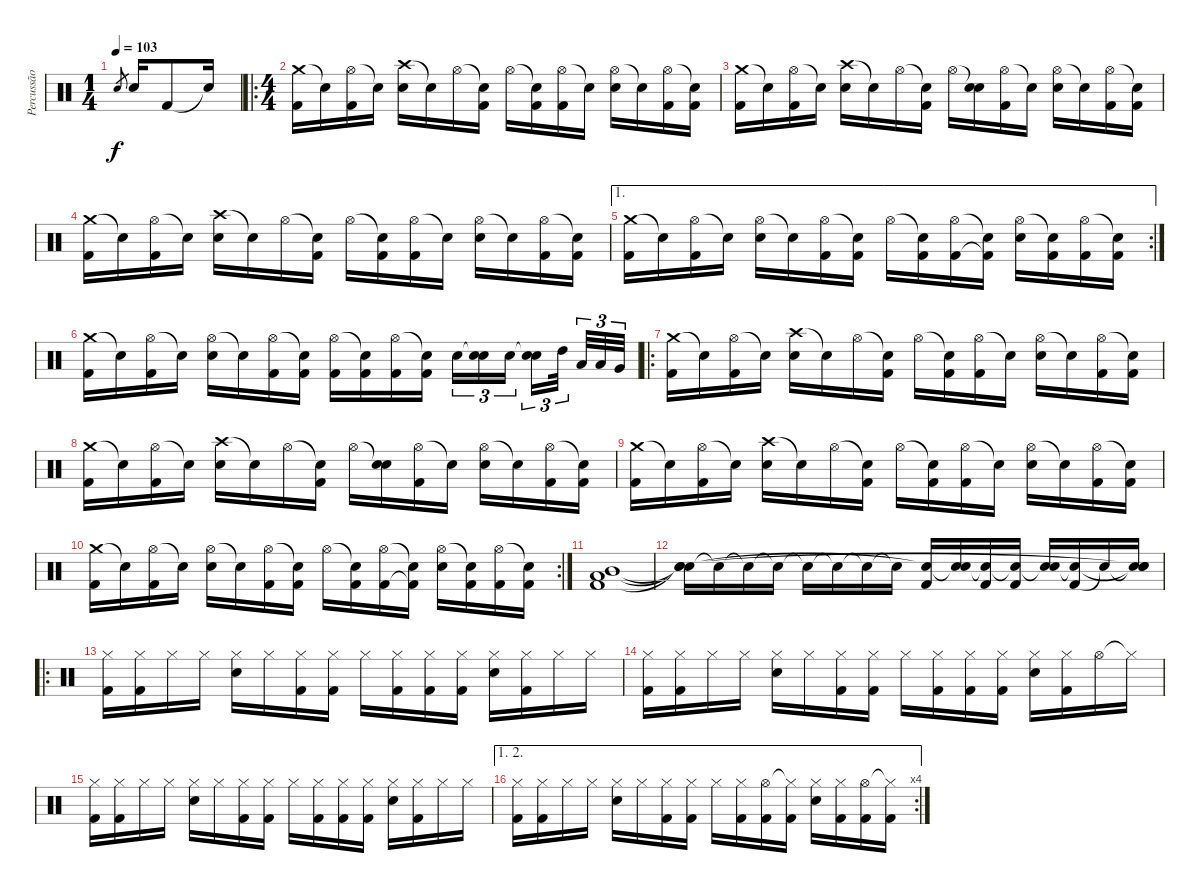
\track ("Percussão" "Percussão") {instrument percussion}
\staff {score}
\articulation defaults
\ts (1 4)
\tempo 103
\clef neutral
\ks c "Electric Snare (hit)".8{gr dy f} "Electric Snare (hit)".16 "Kick (hit) 2".8 "Snare (hit)"{t}.16
|
\ro
\ts (4 4)
("Crash medium (hit)" "Kick (hit) 2").16 "Snare (hit)"{t}.16 ("Hi-Hat (open)" "Kick (hit) 2").16 "Snare (hit)"{t}.16 ("Crash high (hit)" "Electric Snare (hit)").16 "Snare (hit)"{t}.16 "Hi-Hat (open)".16 ("Snare (hit)"{t} "Kick (hit) 2").16 "Hi-Hat (open)".16 ("Snare (hit)"{t} "Kick (hit) 2").16 ("Hi-Hat (open)" "Kick (hit) 2").16 "Snare (hit)"{t}.16 ("Hi-Hat (open)" "Electric Snare (hit)").16 "Snare (hit)"{t}.16 ("Hi-Hat (open)" "Kick (hit) 2").16 ("Snare (hit)"{t} "Kick (hit) 2").16 |
("Crash medium (hit)" "Kick (hit) 2").16 "Snare (hit)"{t}.16 ("Hi-Hat (open)" "Kick (hit) 2").16 "Snare (hit)"{t}.16 ("Crash high (hit)" "Electric Snare (hit)").16 "Snare (hit)"{t}.16 "Hi-Hat (open)".16 ("Snare (hit)"{t} "Kick (hit) 2").16 "Hi-Hat (open)".16 ("Snare (hit)"{t} "Electric Snare (hit)").16 ("Hi-Hat (open)" "Kick (hit) 2").16 "Snare (hit)"{t}.16 ("Hi-Hat (open)" "Electric Snare (hit)").16 "Snare (hit)"{t}.16 ("Hi-Hat (open)" "Kick (hit) 2").16 ("Snare (hit)"{t} "Kick (hit) 2").16 |
("Crash medium (hit)" "Kick (hit) 2").16 "Snare (hit)"{t}.16 ("Hi-Hat (open)" "Kick (hit) 2").16 "Snare (hit)"{t}.16 ("Crash high (hit)" "Electric Snare (hit)").16 "Snare (hit)"{t}.16 "Hi-Hat (open)".16 ("Snare (hit)"{t} "Kick (hit) 2").16 "Hi-Hat (open)".16 ("Snare (hit)"{t} "Kick (hit) 2").16 ("Hi-Hat (open)" "Kick (hit) 2").16 "Snare (hit)"{t}.16 ("Hi-Hat (open)" "Electric Snare (hit)").16 "Snare (hit)"{t}.16 ("Hi-Hat (open)" "Kick (hit) 2").16 ("Snare (hit)"{t} "Kick (hit) 2").16 |
\ae 1
\rc 2
("Crash medium (hit)" "Kick (hit) 2").16 "Snare (hit)"{t}.16 ("Hi-Hat (open)" "Kick (hit) 2").16 "Snare (hit)"{t}.16 ("Hi-Hat (open)" "Electric Snare (hit)").16 "Snare (hit)"{t}.16 ("Hi-Hat (open)" "Kick (hit) 2").16 ("Snare (hit)"{t} "Kick (hit) 2").16 "Hi-Hat (open)".16 ("Snare (hit)"{t} "Kick (hit) 2").16 ("Hi-Hat (open)" "Kick (hit) 2").16 ("Snare (hit)"{t} "Kick (hit) 2"{t}).16 ("Hi-Hat (open)" "Electric Snare (hit)").16 ("Snare (hit)"{t} "Kick (hit) 2").16 ("Hi-Hat (open)" "Kick (hit) 2").16 ("Snare (hit)"{t} "Kick (hit) 2").16 |
("Crash medium (hit)" "Kick (hit) 2").16 "Snare (hit)"{t}.16 ("Hi-Hat (open)" "Kick (hit) 2").16 "Snare (hit)"{t}.16 ("Hi-Hat (open)" "Electric Snare (hit)").16 "Snare (hit)"{t}.16 ("Hi-Hat (open)" "Kick (hit) 2").16 ("Snare (hit)"{t} "Kick (hit) 2").16 ("Hi-Hat (open)" "Kick (hit) 2").16 ("Snare (hit)"{t} "Kick (hit) 2").16 ("Hi-Hat (open)" "Kick (hit) 2").16 ("Snare (hit)"{t} "Kick (hit) 2").16 "Electric Snare (hit)".16{tu (3 2)} ("Snare (hit)"{t} "Electric Snare (hit)").16{tu (3 2)} "Electric Snare (hit)".16{tu (3 2)} ("Snare (hit)"{t} "Electric Snare (hit)").16{tu (3 2)} "High Tom (hit)".32{tu (3 2)} "Low Tom (hit)".32{tu (3 2)} "Low Tom (hit)".32{tu (3 2)} "Very Low Tom (hit)".32{tu (3 2)} |
\ro
("Crash medium (hit)" "Kick (hit) 2").16 "Snare (hit)"{t}.16 ("Hi-Hat (open)" "Kick (hit) 2").16 "Snare (hit)"{t}.16 ("Crash high (hit)" "Electric Snare (hit)").16 "Snare (hit)"{t}.16 "Hi-Hat (open)".16 ("Snare (hit)"{t} "Kick (hit) 2").16 "Hi-Hat (open)".16 ("Snare (hit)"{t} "Kick (hit) 2").16 ("Hi-Hat (open)" "Kick (hit) 2").16 "Snare (hit)"{t}.16 ("Hi-Hat (open)" "Electric Snare (hit)").16 "Snare (hit)"{t}.16 ("Hi-Hat (open)" "Kick (hit) 2").16 ("Snare (hit)"{t} "Kick (hit) 2").16 |
("Crash medium (hit)" "Kick (hit) 2").16 "Snare (hit)"{t}.16 ("Hi-Hat (open)" "Kick (hit) 2").16 "Snare (hit)"{t}.16 ("Crash high (hit)" "Electric Snare (hit)").16 "Snare (hit)"{t}.16 "Hi-Hat (open)".16 ("Snare (hit)"{t} "Kick (hit) 2").16 "Hi-Hat (open)".16 ("Snare (hit)"{t} "Electric Snare (hit)").16 ("Hi-Hat (open)" "Kick (hit) 2").16 "Snare (hit)"{t}.16 ("Hi-Hat (open)" "Electric Snare (hit)").16 "Snare (hit)"{t}.16 ("Hi-Hat (open)" "Kick (hit) 2").16 ("Snare (hit)"{t} "Kick (hit) 2").16 |
("Crash medium (hit)" "Kick (hit) 2").16 "Snare (hit)"{t}.16 ("Hi-Hat (open)" "Kick (hit) 2").16 "Snare (hit)"{t}.16 ("Crash high (hit)" "Electric Snare (hit)").16 "Snare (hit)"{t}.16 "Hi-Hat (open)".16 ("Snare (hit)"{t} "Kick (hit) 2").16 "Hi-Hat (open)".16 ("Snare (hit)"{t} "Kick (hit) 2").16 ("Hi-Hat (open)" "Kick (hit) 2").16 "Snare (hit)"{t}.16 ("Hi-Hat (open)" "Electric Snare (hit)").16 "Snare (hit)"{t}.16 ("Hi-Hat (open)" "Kick (hit) 2").16 ("Snare (hit)"{t} "Kick (hit) 2").16 |
\rc 2
("Crash medium (hit)" "Kick (hit) 2").16 "Snare (hit)"{t}.16 ("Hi-Hat (open)" "Kick (hit) 2").16 "Snare (hit)"{t}.16 ("Hi-Hat (open)" "Electric Snare (hit)").16 "Snare (hit)"{t}.16 ("Hi-Hat (open)" "Kick (hit) 2").16 ("Snare (hit)"{t} "Kick (hit) 2").16 "Hi-Hat (open)".16 ("Snare (hit)"{t} "Kick (hit) 2").16 ("Hi-Hat (open)" "Kick (hit) 2").16 ("Snare (hit)"{t} "Kick (hit) 2"{t}).16 ("Hi-Hat (open)" "Electric Snare (hit)").16 ("Snare (hit)"{t} "Kick (hit) 2").16 ("Hi-Hat (open)" "Kick (hit) 2").16 ("Snare (hit)"{t} "Kick (hit) 2").16 |
("Kick (hit) 2" "Low Tom (hit)" "Mid Tom (hit)").1 |
("Snare (hit)"{t} "Snare (hit)"{t} "Snare (hit)"{t}).16 "Snare (hit)"{t}.16 "Snare (hit)"{t}.16 "Snare (hit)"{t}.16 "Snare (hit)"{t}.16 "Snare (hit)"{t}.16 "Snare (hit)"{t}.16 "Snare (hit)"{t}.16 ("Kick (hit) 2" "Snare (hit)"{t}).16 ("Electric Snare (hit)" "Snare (hit)"{t}).16 ("Kick (hit) 2" "Snare (hit)"{t}).16 ("Kick (hit) 2" "Snare (hit)"{t}).16 ("Electric Snare (hit)" "Snare (hit)"{t}).16 ("Kick (hit) 2" "Snare (hit)"{t}).16 "Snare (hit)"{t}.16 ("Snare (hit)"{t} "Snare (hit)"{t} "Snare (hit)"{t}).16 |
\ro
("Hi-Hat (closed)" "Kick (hit) 2").16 ("Hi-Hat (closed)" "Kick (hit) 2").16 "Hi-Hat (closed)".16 "Hi-Hat (closed)".16 ("Hi-Hat (closed)" "Electric Snare (hit)").16 "Hi-Hat (closed)".16 ("Hi-Hat (closed)" "Kick (hit) 2").16 ("Hi-Hat (closed)" "Kick (hit) 2").16 "Hi-Hat (closed)".16 ("Hi-Hat (closed)" "Kick (hit) 2").16 ("Hi-Hat (closed)" "Kick (hit) 2").16 ("Hi-Hat (closed)" "Kick (hit) 2").16 ("Hi-Hat (closed)" "Electric Snare (hit)").16 ("Hi-Hat (closed)" "Kick (hit) 2").16 "Hi-Hat (closed)".16 "Hi-Hat (closed)".16 |
("Hi-Hat (closed)" "Kick (hit) 2").16 ("Hi-Hat (closed)" "Kick (hit) 2").16 "Hi-Hat (closed)".16 "Hi-Hat (closed)".16 ("Hi-Hat (closed)" "Electric Snare (hit)").16 "Hi-Hat (closed)".16 ("Hi-Hat (closed)" "Kick (hit) 2").16 ("Hi-Hat (closed)" "Kick (hit) 2").16 "Hi-Hat (closed)".16 ("Hi-Hat (closed)" "Kick (hit) 2").16 ("Hi-Hat (closed)" "Kick (hit) 2").16 ("Hi-Hat (closed)" "Kick (hit) 2").16 ("Hi-Hat (closed)" "Electric Snare (hit)").16 ("Hi-Hat (closed)" "Kick (hit) 2").16 "Hi-Hat (open)".16 "Hi-Hat (closed)"{t}.16 |
("Hi-Hat (closed)" "Kick (hit) 2").16 ("Hi-Hat (closed)" "Kick (hit) 2").16 "Hi-Hat (closed)".16 "Hi-Hat (closed)".16 ("Hi-Hat (closed)" "Electric Snare (hit)").16 "Hi-Hat (closed)".16 ("Hi-Hat (closed)" "Kick (hit) 2").16 ("Hi-Hat (closed)" "Kick (hit) 2").16 "Hi-Hat (closed)".16 ("Hi-Hat (closed)" "Kick (hit) 2").16 ("Hi-Hat (closed)" "Kick (hit) 2").16 ("Hi-Hat (closed)" "Kick (hit) 2").16 ("Hi-Hat (closed)" "Electric Snare (hit)").16 ("Hi-Hat (closed)" "Kick (hit) 2").16 "Hi-Hat (closed)".16 "Hi-Hat (closed)".16 |
\ae (1 2)
\rc 4
("Hi-Hat (closed)" "Kick (hit) 2").16 ("Hi-Hat (closed)" "Kick (hit) 2").16 "Hi-Hat (closed)".16 "Hi-Hat (closed)".16 ("Hi-Hat (closed)" "Electric Snare (hit)").16 "Hi-Hat (closed)".16 ("Hi-Hat (closed)" "Kick (hit) 2").16 ("Hi-Hat (closed)" "Kick (hit) 2").16 "Hi-Hat (closed)".16 ("Hi-Hat (closed)" "Kick (hit) 2").16 ("Hi-Hat (open)" "Kick (hit) 2").16 ("Hi-Hat (closed)"{t} "Kick (hit) 2").16 ("Hi-Hat (closed)" "Electric Snare (hit)").16 ("Hi-Hat (closed)" "Kick (hit) 2").16 ("Hi-Hat (open)" "Kick (hit) 2").16 ("Hi-Hat (closed)"{t} "Kick (hit) 2").16
